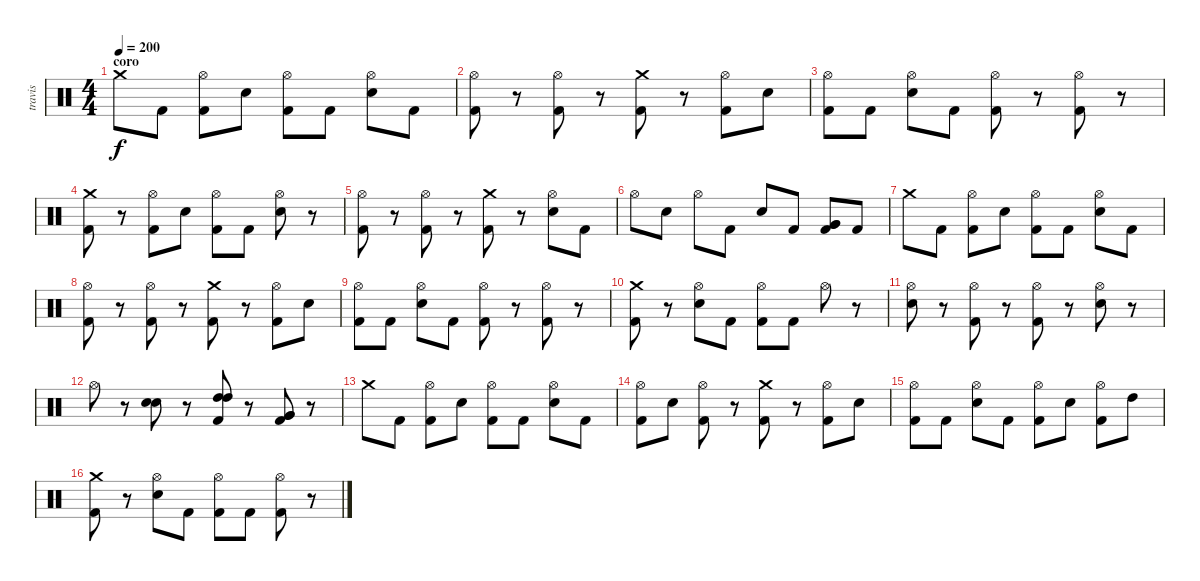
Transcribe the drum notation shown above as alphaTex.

\track ("travis" "travis") {instrument percussion}
\staff {score}
\articulation defaults
\ts (4 4)
\section ("" "coro")
\tempo 200
\clef neutral
\ks c "Crash medium (hit)".8{dy f} "Kick (hit) 2".8
("Hi-Hat (open)" "Kick (hit) 2").8 "Electric Snare (hit)".8 ("Hi-Hat (open)" "Kick (hit) 2").8 "Kick (hit) 2".8 ("Hi-Hat (open)" "Electric Snare (hit)").8 "Kick (hit) 2".8 |
("Hi-Hat (open)" "Kick (hit) 2").8 r.8 ("Hi-Hat (open)" "Kick (hit) 2").8 r.8 ("Crash medium (hit)" "Kick (hit) 2").8 r.8 ("Hi-Hat (open)" "Kick (hit) 2").8 "Electric Snare (hit)".8 |
("Hi-Hat (open)" "Kick (hit) 2").8 "Kick (hit) 2".8 ("Hi-Hat (open)" "Electric Snare (hit)").8 "Kick (hit) 2".8 ("Hi-Hat (open)" "Kick (hit) 2").8 r.8 ("Hi-Hat (open)" "Kick (hit) 2").8 r.8 |
("Crash medium (hit)" "Kick (hit) 2").8 r.8 ("Hi-Hat (open)" "Kick (hit) 2").8 "Electric Snare (hit)".8 ("Hi-Hat (open)" "Kick (hit) 2").8 "Kick (hit) 2".8 ("Hi-Hat (open)" "Electric Snare (hit)").8 r.8 |
("Hi-Hat (open)" "Kick (hit) 2").8 r.8 ("Hi-Hat (open)" "Kick (hit) 2").8 r.8 ("Crash medium (hit)" "Kick (hit) 2").8 r.8 ("Hi-Hat (open)" "Electric Snare (hit)").8 "Kick (hit) 2".8 |
"Hi-Hat (open)".8 "Electric Snare (hit)".8 "Hi-Hat (open)".8 "Kick (hit) 2".8 "Electric Snare (hit)".8 "Kick (hit) 2".8 ("Very Low Tom (hit)" "Very Low Tom (hit)" "Kick (hit) 2").8 "Kick (hit) 2".8 |
"Crash medium (hit)".8 "Kick (hit) 2".8 ("Hi-Hat (open)" "Kick (hit) 2").8 "Electric Snare (hit)".8 ("Hi-Hat (open)" "Kick (hit) 2").8 "Kick (hit) 2".8 ("Hi-Hat (open)" "Electric Snare (hit)").8 "Kick (hit) 2".8 |
("Hi-Hat (open)" "Kick (hit) 2").8 r.8 ("Hi-Hat (open)" "Kick (hit) 2").8 r.8 ("Crash medium (hit)" "Kick (hit) 2").8 r.8 ("Hi-Hat (open)" "Kick (hit) 2").8 "Electric Snare (hit)".8 |
("Hi-Hat (open)" "Kick (hit) 2").8 "Kick (hit) 2".8 ("Hi-Hat (open)" "Electric Snare (hit)").8 "Kick (hit) 2".8 ("Hi-Hat (open)" "Kick (hit) 2").8 r.8 ("Hi-Hat (open)" "Kick (hit) 2").8 r.8 |
("Crash medium (hit)" "Kick (hit) 2").8 r.8 ("Hi-Hat (open)" "Electric Snare (hit)").8 "Kick (hit) 2".8 ("Hi-Hat (open)" "Kick (hit) 2").8 "Kick (hit) 2".8 "Hi-Hat (open)".8 r.8 |
("Hi-Hat (open)" "Electric Snare (hit)").8 r.8 ("Hi-Hat (open)" "Kick (hit) 2").8 r.8 ("Hi-Hat (open)" "Kick (hit) 2").8 r.8 ("Hi-Hat (open)" "Electric Snare (hit)").8 r.8 |
"Hi-Hat (open)".8 r.8 ("Electric Snare (hit)" "Electric Snare (hit)").8 r.8 ("Kick (hit) 2" "High Tom (hit)" "High Tom (hit)").8 r.8 ("Very Low Tom (hit)" "Very Low Tom (hit)" "Kick (hit) 2").8 r.8 |
"Crash medium (hit)".8 "Kick (hit) 2".8 ("Hi-Hat (open)" "Kick (hit) 2").8 "Electric Snare (hit)".8 ("Hi-Hat (open)" "Kick (hit) 2").8 "Kick (hit) 2".8 ("Hi-Hat (open)" "Electric Snare (hit)").8 "Kick (hit) 2".8 |
("Hi-Hat (open)" "Kick (hit) 2").8 "Electric Snare (hit)".8 ("Hi-Hat (open)" "Kick (hit) 2").8 r.8 ("Crash medium (hit)" "Kick (hit) 2").8 r.8 ("Hi-Hat (open)" "Kick (hit) 2").8 "Electric Snare (hit)".8 |
("Hi-Hat (open)" "Kick (hit) 2").8 "Kick (hit) 2".8 ("Hi-Hat (open)" "Electric Snare (hit)").8 "Kick (hit) 2".8 ("Hi-Hat (open)" "Kick (hit) 2").8 "Electric Snare (hit)".8 ("Hi-Hat (open)" "Kick (hit) 2").8 "High Tom (hit)".8 |
("Crash medium (hit)" "Kick (hit) 2").8 r.8 ("Hi-Hat (open)" "Electric Snare (hit)").8 "Kick (hit) 2".8 ("Hi-Hat (open)" "Kick (hit) 2").8 "Kick (hit) 2".8 ("Hi-Hat (open)" "Kick (hit) 2").8 r.8
